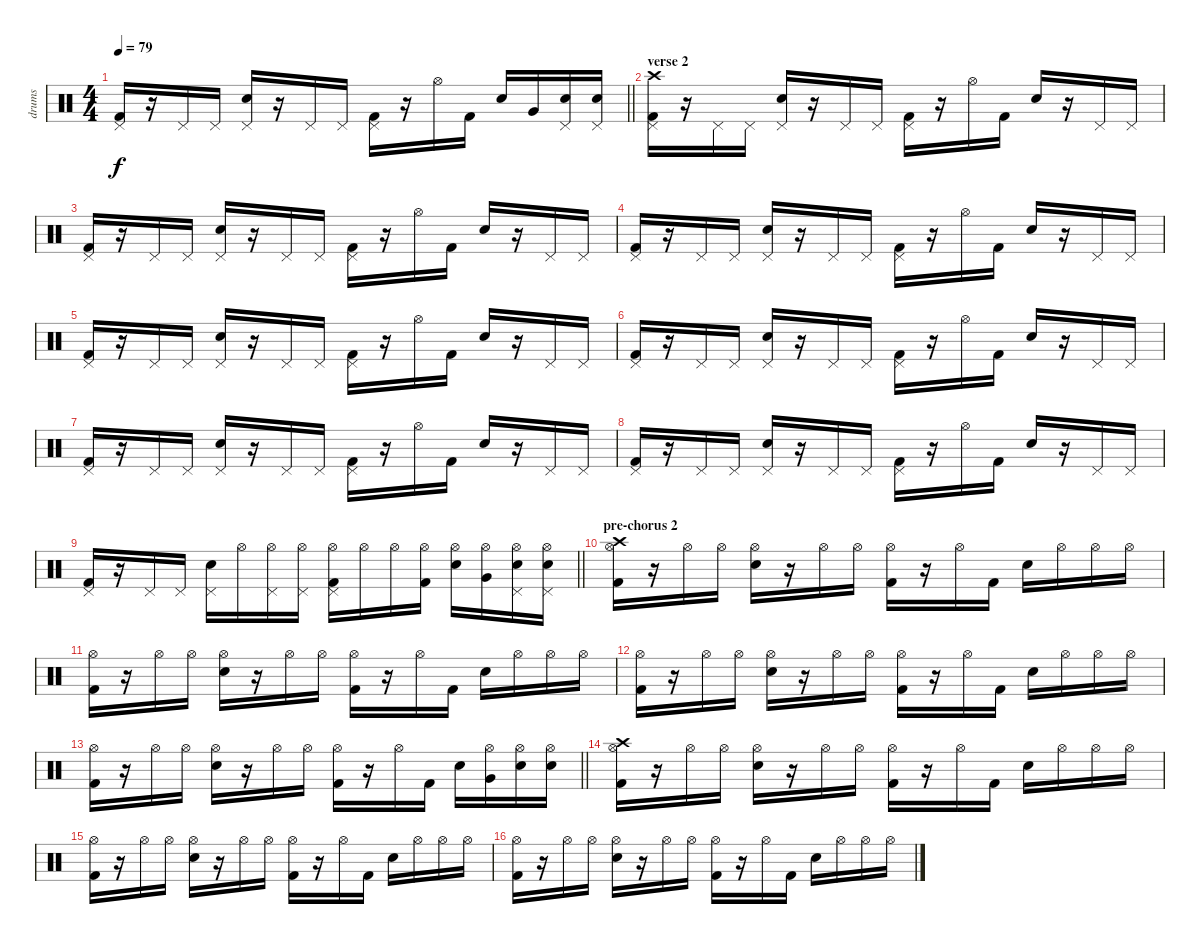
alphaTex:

\track ("drums" "drums") {instrument percussion}
\staff {score}
\articulation defaults
\ts (4 4)
\tempo 79
\clef neutral
\barLineRight lightlight
\ks c
("Kick (hit) 2" "Pedal Hi-Hat (hit)").16{dy f} r.16 "Pedal Hi-Hat (hit)".16 "Pedal Hi-Hat (hit)".16 ("Electric Snare (hit)" "Pedal Hi-Hat (hit)").16 r.16 "Pedal Hi-Hat (hit)".16 "Pedal Hi-Hat (hit)".16 ("Kick (hit) 2" "Pedal Hi-Hat (hit)").16 r.16 "Hi-Hat (open)".16 "Kick (hit) 2".16 "Electric Snare (hit)".16 "Very Low Tom (hit)".16 ("Electric Snare (hit)" "Pedal Hi-Hat (hit)").16 ("Electric Snare (hit)" "Pedal Hi-Hat (hit)").16 |
\section ("" "verse 2")
("Kick (hit) 2" "Pedal Hi-Hat (hit)" "Crash high (hit)").16 r.16 "Pedal Hi-Hat (hit)".16 "Pedal Hi-Hat (hit)".16 ("Electric Snare (hit)" "Pedal Hi-Hat (hit)").16 r.16 "Pedal Hi-Hat (hit)".16 "Pedal Hi-Hat (hit)".16 ("Kick (hit) 2" "Pedal Hi-Hat (hit)").16 r.16 "Hi-Hat (open)".16 "Kick (hit) 2".16 "Electric Snare (hit)".16 r.16 "Pedal Hi-Hat (hit)".16 "Pedal Hi-Hat (hit)".16 |
("Kick (hit) 2" "Pedal Hi-Hat (hit)").16 r.16 "Pedal Hi-Hat (hit)".16 "Pedal Hi-Hat (hit)".16 ("Electric Snare (hit)" "Pedal Hi-Hat (hit)").16 r.16 "Pedal Hi-Hat (hit)".16 "Pedal Hi-Hat (hit)".16 ("Kick (hit) 2" "Pedal Hi-Hat (hit)").16 r.16 "Hi-Hat (open)".16 "Kick (hit) 2".16 "Electric Snare (hit)".16 r.16 "Pedal Hi-Hat (hit)".16 "Pedal Hi-Hat (hit)".16 |
("Kick (hit) 2" "Pedal Hi-Hat (hit)").16 r.16 "Pedal Hi-Hat (hit)".16 "Pedal Hi-Hat (hit)".16 ("Electric Snare (hit)" "Pedal Hi-Hat (hit)").16 r.16 "Pedal Hi-Hat (hit)".16 "Pedal Hi-Hat (hit)".16 ("Kick (hit) 2" "Pedal Hi-Hat (hit)").16 r.16 "Hi-Hat (open)".16 "Kick (hit) 2".16 "Electric Snare (hit)".16 r.16 "Pedal Hi-Hat (hit)".16 "Pedal Hi-Hat (hit)".16 |
("Kick (hit) 2" "Pedal Hi-Hat (hit)").16 r.16 "Pedal Hi-Hat (hit)".16 "Pedal Hi-Hat (hit)".16 ("Electric Snare (hit)" "Pedal Hi-Hat (hit)").16 r.16 "Pedal Hi-Hat (hit)".16 "Pedal Hi-Hat (hit)".16 ("Kick (hit) 2" "Pedal Hi-Hat (hit)").16 r.16 "Hi-Hat (open)".16 "Kick (hit) 2".16 "Electric Snare (hit)".16 r.16 "Pedal Hi-Hat (hit)".16 "Pedal Hi-Hat (hit)".16 |
("Kick (hit) 2" "Pedal Hi-Hat (hit)").16 r.16 "Pedal Hi-Hat (hit)".16 "Pedal Hi-Hat (hit)".16 ("Electric Snare (hit)" "Pedal Hi-Hat (hit)").16 r.16 "Pedal Hi-Hat (hit)".16 "Pedal Hi-Hat (hit)".16 ("Kick (hit) 2" "Pedal Hi-Hat (hit)").16 r.16 "Hi-Hat (open)".16 "Kick (hit) 2".16 "Electric Snare (hit)".16 r.16 "Pedal Hi-Hat (hit)".16 "Pedal Hi-Hat (hit)".16 |
("Kick (hit) 2" "Pedal Hi-Hat (hit)").16 r.16 "Pedal Hi-Hat (hit)".16 "Pedal Hi-Hat (hit)".16 ("Electric Snare (hit)" "Pedal Hi-Hat (hit)").16 r.16 "Pedal Hi-Hat (hit)".16 "Pedal Hi-Hat (hit)".16 ("Kick (hit) 2" "Pedal Hi-Hat (hit)").16 r.16 "Hi-Hat (open)".16 "Kick (hit) 2".16 "Electric Snare (hit)".16 r.16 "Pedal Hi-Hat (hit)".16 "Pedal Hi-Hat (hit)".16 |
("Kick (hit) 2" "Pedal Hi-Hat (hit)").16 r.16 "Pedal Hi-Hat (hit)".16 "Pedal Hi-Hat (hit)".16 ("Electric Snare (hit)" "Pedal Hi-Hat (hit)").16 r.16 "Pedal Hi-Hat (hit)".16 "Pedal Hi-Hat (hit)".16 ("Kick (hit) 2" "Pedal Hi-Hat (hit)").16 r.16 "Hi-Hat (open)".16 "Kick (hit) 2".16 "Electric Snare (hit)".16 r.16 "Pedal Hi-Hat (hit)".16 "Pedal Hi-Hat (hit)".16 |
\barLineRight lightlight
("Kick (hit) 2" "Pedal Hi-Hat (hit)").16 r.16 "Pedal Hi-Hat (hit)".16 "Pedal Hi-Hat (hit)".16 ("Electric Snare (hit)" "Pedal Hi-Hat (hit)").16 "Hi-Hat (open)".16 ("Pedal Hi-Hat (hit)" "Hi-Hat (open)").16 ("Pedal Hi-Hat (hit)" "Hi-Hat (open)").16 ("Kick (hit) 2" "Pedal Hi-Hat (hit)" "Hi-Hat (open)").16 "Hi-Hat (open)".16 "Hi-Hat (open)".16 ("Kick (hit) 2" "Hi-Hat (open)").16 ("Electric Snare (hit)" "Hi-Hat (open)").16 ("Very Low Tom (hit)" "Hi-Hat (open)").16 ("Electric Snare (hit)" "Pedal Hi-Hat (hit)" "Hi-Hat (open)").16 ("Electric Snare (hit)" "Pedal Hi-Hat (hit)" "Hi-Hat (open)").16 |
\section ("" "pre-chorus 2")
("Kick (hit) 2" "Hi-Hat (open)" "Crash high (hit)").16 r.16 "Hi-Hat (open)".16 "Hi-Hat (open)".16 ("Electric Snare (hit)" "Hi-Hat (open)").16 r.16 "Hi-Hat (open)".16 "Hi-Hat (open)".16 ("Kick (hit) 2" "Hi-Hat (open)").16 r.16 "Hi-Hat (open)".16 "Kick (hit) 2".16 "Electric Snare (hit)".16 "Hi-Hat (open)".16 "Hi-Hat (open)".16 "Hi-Hat (open)".16 |
("Kick (hit) 2" "Hi-Hat (open)").16 r.16 "Hi-Hat (open)".16 "Hi-Hat (open)".16 ("Electric Snare (hit)" "Hi-Hat (open)").16 r.16 "Hi-Hat (open)".16 "Hi-Hat (open)".16 ("Kick (hit) 2" "Hi-Hat (open)").16 r.16 "Hi-Hat (open)".16 "Kick (hit) 2".16 "Electric Snare (hit)".16 "Hi-Hat (open)".16 "Hi-Hat (open)".16 "Hi-Hat (open)".16 |
("Kick (hit) 2" "Hi-Hat (open)").16 r.16 "Hi-Hat (open)".16 "Hi-Hat (open)".16 ("Electric Snare (hit)" "Hi-Hat (open)").16 r.16 "Hi-Hat (open)".16 "Hi-Hat (open)".16 ("Kick (hit) 2" "Hi-Hat (open)").16 r.16 "Hi-Hat (open)".16 "Kick (hit) 2".16 "Electric Snare (hit)".16 "Hi-Hat (open)".16 "Hi-Hat (open)".16 "Hi-Hat (open)".16 |
\barLineRight lightlight
("Kick (hit) 2" "Hi-Hat (open)").16 r.16 "Hi-Hat (open)".16 "Hi-Hat (open)".16 ("Electric Snare (hit)" "Hi-Hat (open)").16 r.16 "Hi-Hat (open)".16 "Hi-Hat (open)".16 ("Kick (hit) 2" "Hi-Hat (open)").16 r.16 "Hi-Hat (open)".16 "Kick (hit) 2".16 "Electric Snare (hit)".16 ("Very Low Tom (hit)" "Hi-Hat (open)").16 ("Electric Snare (hit)" "Hi-Hat (open)").16 ("Electric Snare (hit)" "Hi-Hat (open)").16 |
("Kick (hit) 2" "Hi-Hat (open)" "Crash high (hit)").16 r.16 "Hi-Hat (open)".16 "Hi-Hat (open)".16 ("Electric Snare (hit)" "Hi-Hat (open)").16 r.16 "Hi-Hat (open)".16 "Hi-Hat (open)".16 ("Kick (hit) 2" "Hi-Hat (open)").16 r.16 "Hi-Hat (open)".16 "Kick (hit) 2".16 "Electric Snare (hit)".16 "Hi-Hat (open)".16 "Hi-Hat (open)".16 "Hi-Hat (open)".16 |
("Kick (hit) 2" "Hi-Hat (open)").16 r.16 "Hi-Hat (open)".16 "Hi-Hat (open)".16 ("Electric Snare (hit)" "Hi-Hat (open)").16 r.16 "Hi-Hat (open)".16 "Hi-Hat (open)".16 ("Kick (hit) 2" "Hi-Hat (open)").16 r.16 "Hi-Hat (open)".16 "Kick (hit) 2".16 "Electric Snare (hit)".16 "Hi-Hat (open)".16 "Hi-Hat (open)".16 "Hi-Hat (open)".16 |
("Kick (hit) 2" "Hi-Hat (open)").16 r.16 "Hi-Hat (open)".16 "Hi-Hat (open)".16 ("Electric Snare (hit)" "Hi-Hat (open)").16 r.16 "Hi-Hat (open)".16 "Hi-Hat (open)".16 ("Kick (hit) 2" "Hi-Hat (open)").16 r.16 "Hi-Hat (open)".16 "Kick (hit) 2".16 "Electric Snare (hit)".16 "Hi-Hat (open)".16 "Hi-Hat (open)".16 "Hi-Hat (open)".16
